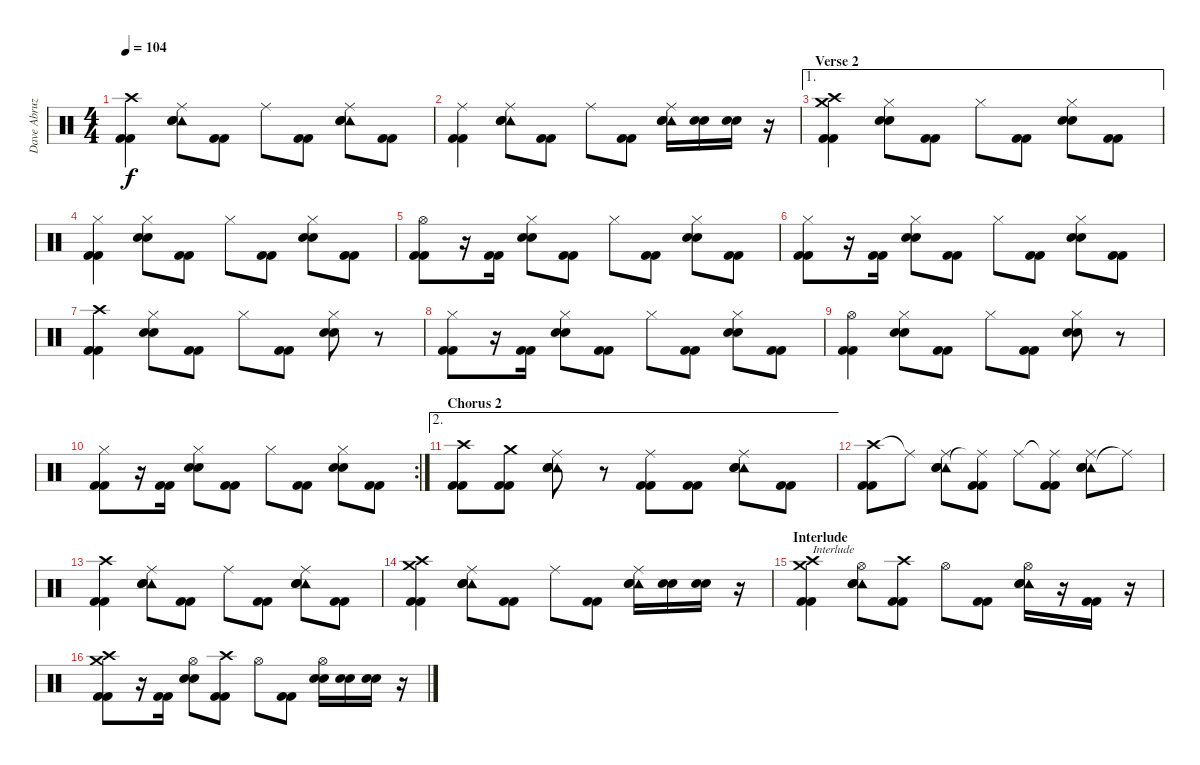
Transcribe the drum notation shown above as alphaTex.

\track ("Dave Abruzzese" "Dave Abruz") {instrument percussion}
\staff {score}
\articulation defaults
\ts (4 4)
\tempo 104
\clef neutral
\ks c
("Kick (hit) 2" "Kick (hit) 2" "Crash high (hit)").4{dy f} ("Tambourine (hit)" "Electric Snare (hit)" "Electric Snare (hit)" "Ride (middle)").8 ("Kick (hit) 2" "Kick (hit) 2").8 "Ride (middle)".8 ("Kick (hit) 2" "Kick (hit) 2").8 ("Tambourine (hit)" "Electric Snare (hit)" "Electric Snare (hit)" "Ride (middle)").8 ("Kick (hit) 2" "Kick (hit) 2").8 |
("Kick (hit) 2" "Kick (hit) 2" "Ride (middle)").4 ("Tambourine (hit)" "Electric Snare (hit)" "Electric Snare (hit)" "Ride (middle)").8 ("Kick (hit) 2" "Kick (hit) 2").8 "Ride (middle)".8 ("Kick (hit) 2" "Kick (hit) 2").8 ("Tambourine (hit)" "Electric Snare (hit)" "Electric Snare (hit)" "Ride (middle)").16 ("Electric Snare (hit)" "Electric Snare (hit)").16 ("Electric Snare (hit)" "Electric Snare (hit)").16 r.16 |
\ae 1
\section ("" "Verse 2")
("Crash medium (hit)" "Kick (hit) 2" "Kick (hit) 2" "Crash high (hit)").4 ("Electric Snare (hit)" "Electric Snare (hit)" "Hi-Hat (closed)").8 ("Kick (hit) 2" "Kick (hit) 2").8 "Hi-Hat (closed)".8 ("Kick (hit) 2" "Kick (hit) 2").8 ("Electric Snare (hit)" "Electric Snare (hit)" "Hi-Hat (closed)").8 ("Kick (hit) 2" "Kick (hit) 2").8 |
("Kick (hit) 2" "Kick (hit) 2" "Hi-Hat (closed)").4 ("Electric Snare (hit)" "Electric Snare (hit)" "Hi-Hat (closed)").8 ("Kick (hit) 2" "Kick (hit) 2").8 "Hi-Hat (closed)".8 ("Kick (hit) 2" "Kick (hit) 2").8 ("Electric Snare (hit)" "Electric Snare (hit)" "Hi-Hat (closed)").8 ("Kick (hit) 2" "Kick (hit) 2").8 |
("Kick (hit) 2" "Kick (hit) 2" "Hi-Hat (open)").8 r.16 ("Kick (hit) 2" "Kick (hit) 2").16 ("Electric Snare (hit)" "Electric Snare (hit)" "Hi-Hat (closed)").8 ("Kick (hit) 2" "Kick (hit) 2").8 "Hi-Hat (closed)".8 ("Kick (hit) 2" "Kick (hit) 2").8 ("Electric Snare (hit)" "Electric Snare (hit)" "Hi-Hat (closed)").8 ("Kick (hit) 2" "Kick (hit) 2").8 |
("Kick (hit) 2" "Kick (hit) 2" "Hi-Hat (closed)").8 r.16 ("Kick (hit) 2" "Kick (hit) 2").16 ("Electric Snare (hit)" "Electric Snare (hit)" "Hi-Hat (closed)").8 ("Kick (hit) 2" "Kick (hit) 2").8 "Hi-Hat (closed)".8 ("Kick (hit) 2" "Kick (hit) 2").8 ("Electric Snare (hit)" "Electric Snare (hit)" "Hi-Hat (closed)").8 ("Kick (hit) 2" "Kick (hit) 2").8 |
("Kick (hit) 2" "Kick (hit) 2" "Crash high (hit)").4 ("Electric Snare (hit)" "Electric Snare (hit)" "Hi-Hat (closed)").8 ("Kick (hit) 2" "Kick (hit) 2").8 "Hi-Hat (closed)".8 ("Kick (hit) 2" "Kick (hit) 2").8 ("Electric Snare (hit)" "Electric Snare (hit)" "Hi-Hat (closed)").8 r.8 |
("Kick (hit) 2" "Kick (hit) 2" "Hi-Hat (closed)").8 r.16 ("Kick (hit) 2" "Kick (hit) 2").16 ("Electric Snare (hit)" "Electric Snare (hit)" "Hi-Hat (closed)").8 ("Kick (hit) 2" "Kick (hit) 2").8 "Hi-Hat (closed)".8 ("Kick (hit) 2" "Kick (hit) 2").8 ("Electric Snare (hit)" "Electric Snare (hit)" "Hi-Hat (closed)").8 ("Kick (hit) 2" "Kick (hit) 2").8 |
("Kick (hit) 2" "Kick (hit) 2" "Hi-Hat (open)").4 ("Electric Snare (hit)" "Electric Snare (hit)" "Hi-Hat (closed)").8 ("Kick (hit) 2" "Kick (hit) 2").8 "Hi-Hat (closed)".8 ("Kick (hit) 2" "Kick (hit) 2").8 ("Electric Snare (hit)" "Electric Snare (hit)" "Hi-Hat (closed)").8 r.8 |
\rc 2
("Kick (hit) 2" "Kick (hit) 2" "Hi-Hat (closed)").8 r.16 ("Kick (hit) 2" "Kick (hit) 2").16 ("Electric Snare (hit)" "Electric Snare (hit)" "Hi-Hat (closed)").8 ("Kick (hit) 2" "Kick (hit) 2").8 "Hi-Hat (closed)".8 ("Kick (hit) 2" "Kick (hit) 2").8 ("Electric Snare (hit)" "Electric Snare (hit)" "Hi-Hat (closed)").8 ("Kick (hit) 2" "Kick (hit) 2").8 |
\ae 2
\section ("" "Chorus 2")
("Crash high (hit)" "Kick (hit) 2" "Kick (hit) 2").8 ("Crash medium (hit)" "Kick (hit) 2" "Kick (hit) 2").8 ("Tambourine (hit)" "Ride (middle)" "Electric Snare (hit)" "Electric Snare (hit)").8 r.8 ("Ride (middle)" "Kick (hit) 2" "Kick (hit) 2").8 ("Kick (hit) 2" "Kick (hit) 2").8 ("Tambourine (hit)" "Ride (middle)" "Electric Snare (hit)" "Electric Snare (hit)").8 ("Kick (hit) 2" "Kick (hit) 2").8 |
("Crash high (hit)" "Kick (hit) 2" "Kick (hit) 2").8 "Ride (middle)"{t}.8 ("Tambourine (hit)" "Ride (middle)" "Electric Snare (hit)" "Electric Snare (hit)").8 ("Ride (middle)"{t} "Kick (hit) 2" "Kick (hit) 2").8 "Ride (middle)".8 ("Ride (middle)"{t} "Kick (hit) 2" "Kick (hit) 2").8 ("Tambourine (hit)" "Ride (middle)" "Electric Snare (hit)" "Electric Snare (hit)").8 "Ride (middle)"{t}.8 |
("Kick (hit) 2" "Kick (hit) 2" "Crash high (hit)").4 ("Tambourine (hit)" "Electric Snare (hit)" "Electric Snare (hit)" "Ride (middle)").8 ("Kick (hit) 2" "Kick (hit) 2").8 "Ride (middle)".8 ("Kick (hit) 2" "Kick (hit) 2").8 ("Tambourine (hit)" "Electric Snare (hit)" "Electric Snare (hit)" "Ride (middle)").8 ("Kick (hit) 2" "Kick (hit) 2").8 |
("Crash medium (hit)" "Kick (hit) 2" "Kick (hit) 2" "Crash high (hit)").4 ("Tambourine (hit)" "Electric Snare (hit)" "Electric Snare (hit)" "Ride (middle)").8 ("Kick (hit) 2" "Kick (hit) 2").8 "Ride (middle)".8 ("Kick (hit) 2" "Kick (hit) 2").8 ("Tambourine (hit)" "Electric Snare (hit)" "Electric Snare (hit)" "Ride (middle)").16 ("Electric Snare (hit)" "Electric Snare (hit)").16 ("Electric Snare (hit)" "Electric Snare (hit)").16 r.16 |
\section ("" "Interlude")
("Crash medium (hit)" "Kick (hit) 2" "Kick (hit) 2" "Crash high (hit)").4{txt "Interlude"} ("Tambourine (hit)" "Electric Snare (hit)" "Electric Snare (hit)" "Hi-Hat (open)").8 ("Crash high (hit)" "Kick (hit) 2" "Kick (hit) 2").8 "Hi-Hat (open)".8 ("Kick (hit) 2" "Kick (hit) 2").8 ("Tambourine (hit)" "Electric Snare (hit)" "Electric Snare (hit)" "Hi-Hat (open)").16 r.16 ("Kick (hit) 2" "Kick (hit) 2").16 r.16 |
("Crash high (hit)" "Kick (hit) 2" "Kick (hit) 2" "Crash medium (hit)").8 r.16 ("Kick (hit) 2" "Kick (hit) 2").16 ("Electric Snare (hit)" "Electric Snare (hit)" "Hi-Hat (open)").8 ("Crash high (hit)" "Kick (hit) 2" "Kick (hit) 2").8 "Hi-Hat (open)".8 ("Kick (hit) 2" "Kick (hit) 2").8 ("Electric Snare (hit)" "Electric Snare (hit)" "Hi-Hat (open)").16 ("Electric Snare (hit)" "Electric Snare (hit)").16 ("Electric Snare (hit)" "Electric Snare (hit)").16 r.16
